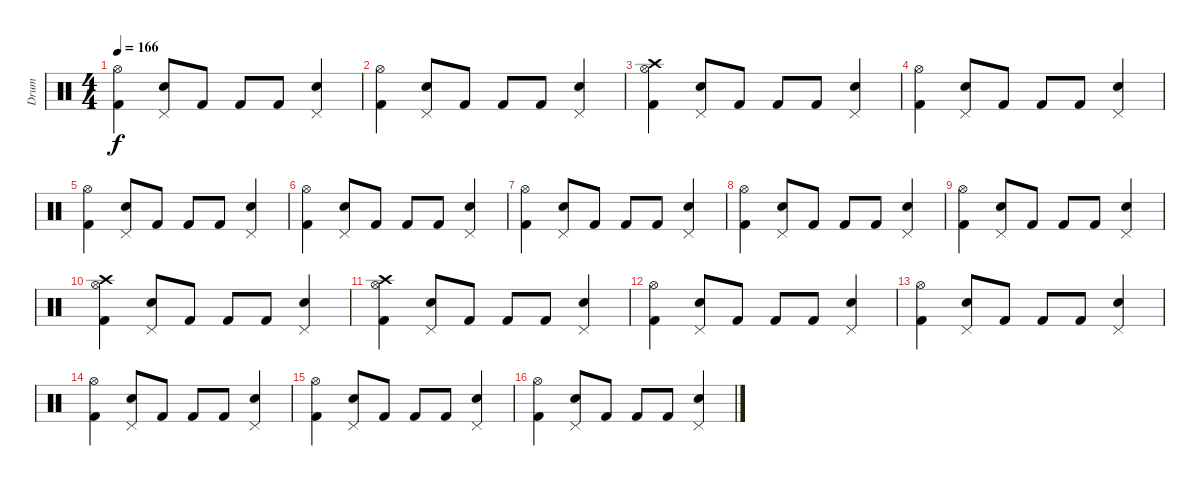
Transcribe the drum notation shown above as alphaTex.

\track ("Drum" "Drum") {instrument percussion}
\staff {score}
\articulation defaults
\ts (4 4)
\tempo 166
\clef neutral
\ks c
("Kick (hit) 2" "Hi-Hat (open)").4{dy f} ("Electric Snare (hit)" "Pedal Hi-Hat (hit)").8 "Kick (hit) 2".8 "Kick (hit) 2".8 "Kick (hit) 2".8 ("Electric Snare (hit)" "Pedal Hi-Hat (hit)").4 |
("Kick (hit) 2" "Hi-Hat (open)").4 ("Electric Snare (hit)" "Pedal Hi-Hat (hit)").8 "Kick (hit) 2".8 "Kick (hit) 2".8 "Kick (hit) 2".8 ("Electric Snare (hit)" "Pedal Hi-Hat (hit)").4 |
("Kick (hit) 2" "Hi-Hat (open)" "Crash high (hit)").4 ("Electric Snare (hit)" "Pedal Hi-Hat (hit)").8 "Kick (hit) 2".8 "Kick (hit) 2".8 "Kick (hit) 2".8 ("Electric Snare (hit)" "Pedal Hi-Hat (hit)").4 |
("Kick (hit) 2" "Hi-Hat (open)").4 ("Electric Snare (hit)" "Pedal Hi-Hat (hit)").8 "Kick (hit) 2".8 "Kick (hit) 2".8 "Kick (hit) 2".8 ("Electric Snare (hit)" "Pedal Hi-Hat (hit)").4 |
("Kick (hit) 2" "Hi-Hat (open)").4 ("Electric Snare (hit)" "Pedal Hi-Hat (hit)").8 "Kick (hit) 2".8 "Kick (hit) 2".8 "Kick (hit) 2".8 ("Electric Snare (hit)" "Pedal Hi-Hat (hit)").4 |
("Kick (hit) 2" "Hi-Hat (open)").4 ("Electric Snare (hit)" "Pedal Hi-Hat (hit)").8 "Kick (hit) 2".8 "Kick (hit) 2".8 "Kick (hit) 2".8 ("Electric Snare (hit)" "Pedal Hi-Hat (hit)").4 |
("Kick (hit) 2" "Hi-Hat (open)").4 ("Electric Snare (hit)" "Pedal Hi-Hat (hit)").8 "Kick (hit) 2".8 "Kick (hit) 2".8 "Kick (hit) 2".8 ("Electric Snare (hit)" "Pedal Hi-Hat (hit)").4 |
("Kick (hit) 2" "Hi-Hat (open)").4 ("Electric Snare (hit)" "Pedal Hi-Hat (hit)").8 "Kick (hit) 2".8 "Kick (hit) 2".8 "Kick (hit) 2".8 ("Electric Snare (hit)" "Pedal Hi-Hat (hit)").4 |
("Kick (hit) 2" "Hi-Hat (open)").4 ("Electric Snare (hit)" "Pedal Hi-Hat (hit)").8 "Kick (hit) 2".8 "Kick (hit) 2".8 "Kick (hit) 2".8 ("Electric Snare (hit)" "Pedal Hi-Hat (hit)").4 |
("Kick (hit) 2" "Hi-Hat (open)" "Crash high (hit)").4 ("Electric Snare (hit)" "Pedal Hi-Hat (hit)").8 "Kick (hit) 2".8 "Kick (hit) 2".8 "Kick (hit) 2".8 ("Electric Snare (hit)" "Pedal Hi-Hat (hit)").4 |
("Kick (hit) 2" "Hi-Hat (open)" "Crash high (hit)").4 ("Electric Snare (hit)" "Pedal Hi-Hat (hit)").8 "Kick (hit) 2".8 "Kick (hit) 2".8 "Kick (hit) 2".8 ("Electric Snare (hit)" "Pedal Hi-Hat (hit)").4 |
("Kick (hit) 2" "Hi-Hat (open)").4 ("Electric Snare (hit)" "Pedal Hi-Hat (hit)").8 "Kick (hit) 2".8 "Kick (hit) 2".8 "Kick (hit) 2".8 ("Electric Snare (hit)" "Pedal Hi-Hat (hit)").4 |
("Kick (hit) 2" "Hi-Hat (open)").4 ("Electric Snare (hit)" "Pedal Hi-Hat (hit)").8 "Kick (hit) 2".8 "Kick (hit) 2".8 "Kick (hit) 2".8 ("Electric Snare (hit)" "Pedal Hi-Hat (hit)").4 |
("Kick (hit) 2" "Hi-Hat (open)").4 ("Electric Snare (hit)" "Pedal Hi-Hat (hit)").8 "Kick (hit) 2".8 "Kick (hit) 2".8 "Kick (hit) 2".8 ("Electric Snare (hit)" "Pedal Hi-Hat (hit)").4 |
("Kick (hit) 2" "Hi-Hat (open)").4 ("Electric Snare (hit)" "Pedal Hi-Hat (hit)").8 "Kick (hit) 2".8 "Kick (hit) 2".8 "Kick (hit) 2".8 ("Electric Snare (hit)" "Pedal Hi-Hat (hit)").4 |
("Kick (hit) 2" "Hi-Hat (open)").4 ("Electric Snare (hit)" "Pedal Hi-Hat (hit)").8 "Kick (hit) 2".8 "Kick (hit) 2".8 "Kick (hit) 2".8 ("Electric Snare (hit)" "Pedal Hi-Hat (hit)").4
